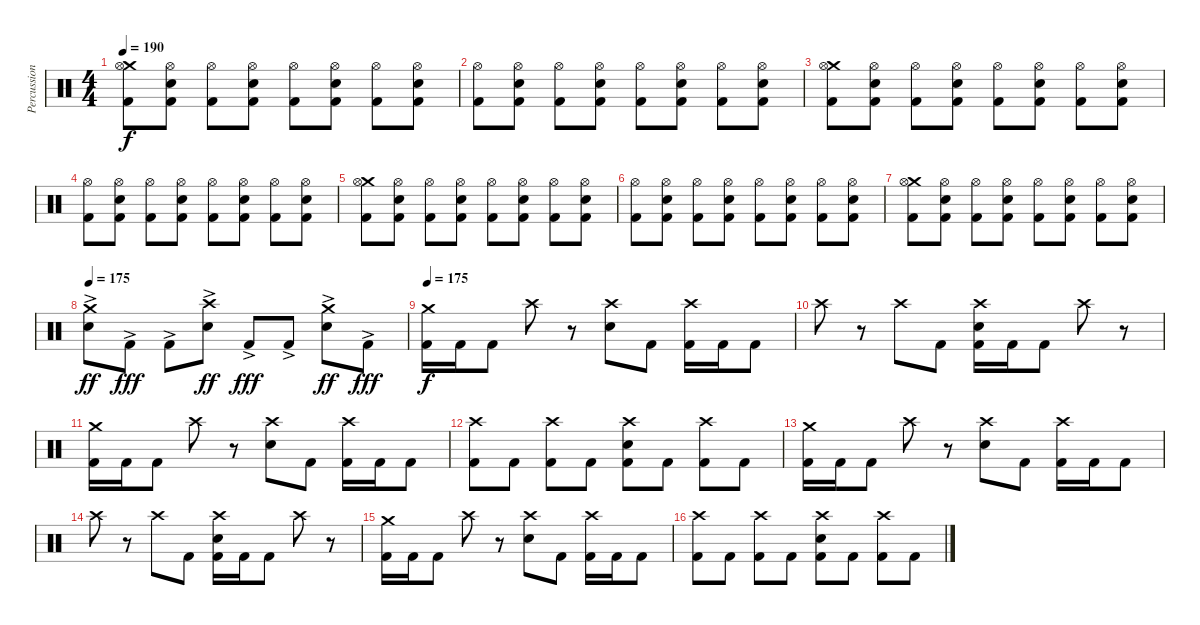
\track ("Percussion" "Percussion") {instrument percussion}
\staff {score}
\articulation defaults
\ts (4 4)
\tempo 190
\clef neutral
\ks c
("Crash medium (hit)" "Hi-Hat (open)" "Kick (hit) 2").8{dy f} ("Hi-Hat (open)" "Snare (hit) 2" "Kick (hit) 2").8 ("Hi-Hat (open)" "Kick (hit) 2").8 ("Hi-Hat (open)" "Snare (hit) 2" "Kick (hit) 2").8 ("Hi-Hat (open)" "Kick (hit) 2").8 ("Hi-Hat (open)" "Snare (hit) 2" "Kick (hit) 2").8 ("Hi-Hat (open)" "Kick (hit) 2").8 ("Hi-Hat (open)" "Snare (hit) 2" "Kick (hit) 2").8 |
("Hi-Hat (open)" "Kick (hit) 2").8 ("Hi-Hat (open)" "Snare (hit) 2" "Kick (hit) 2").8 ("Hi-Hat (open)" "Kick (hit) 2").8 ("Hi-Hat (open)" "Snare (hit) 2" "Kick (hit) 2").8 ("Hi-Hat (open)" "Kick (hit) 2").8 ("Hi-Hat (open)" "Snare (hit) 2" "Kick (hit) 2").8 ("Hi-Hat (open)" "Kick (hit) 2").8 ("Hi-Hat (open)" "Snare (hit) 2" "Kick (hit) 2").8 |
("Crash medium (hit)" "Hi-Hat (open)" "Kick (hit) 2").8 ("Hi-Hat (open)" "Snare (hit) 2" "Kick (hit) 2").8 ("Hi-Hat (open)" "Kick (hit) 2").8 ("Hi-Hat (open)" "Snare (hit) 2" "Kick (hit) 2").8 ("Hi-Hat (open)" "Kick (hit) 2").8 ("Hi-Hat (open)" "Snare (hit) 2" "Kick (hit) 2").8 ("Hi-Hat (open)" "Kick (hit) 2").8 ("Hi-Hat (open)" "Snare (hit) 2" "Kick (hit) 2").8 |
("Hi-Hat (open)" "Kick (hit) 2").8 ("Hi-Hat (open)" "Snare (hit) 2" "Kick (hit) 2").8 ("Hi-Hat (open)" "Kick (hit) 2").8 ("Hi-Hat (open)" "Snare (hit) 2" "Kick (hit) 2").8 ("Hi-Hat (open)" "Kick (hit) 2").8 ("Hi-Hat (open)" "Snare (hit) 2" "Kick (hit) 2").8 ("Hi-Hat (open)" "Kick (hit) 2").8 ("Hi-Hat (open)" "Snare (hit) 2" "Kick (hit) 2").8 |
("Crash medium (hit)" "Hi-Hat (open)" "Kick (hit) 2").8 ("Hi-Hat (open)" "Snare (hit) 2" "Kick (hit) 2").8 ("Hi-Hat (open)" "Kick (hit) 2").8 ("Hi-Hat (open)" "Snare (hit) 2" "Kick (hit) 2").8 ("Hi-Hat (open)" "Kick (hit) 2").8 ("Hi-Hat (open)" "Snare (hit) 2" "Kick (hit) 2").8 ("Hi-Hat (open)" "Kick (hit) 2").8 ("Hi-Hat (open)" "Snare (hit) 2" "Kick (hit) 2").8 |
("Hi-Hat (open)" "Kick (hit) 2").8 ("Hi-Hat (open)" "Snare (hit) 2" "Kick (hit) 2").8 ("Hi-Hat (open)" "Kick (hit) 2").8 ("Hi-Hat (open)" "Snare (hit) 2" "Kick (hit) 2").8 ("Hi-Hat (open)" "Kick (hit) 2").8 ("Hi-Hat (open)" "Snare (hit) 2" "Kick (hit) 2").8 ("Hi-Hat (open)" "Kick (hit) 2").8 ("Hi-Hat (open)" "Snare (hit) 2" "Kick (hit) 2").8 |
("Crash medium (hit)" "Hi-Hat (open)" "Kick (hit) 2").8 ("Hi-Hat (open)" "Snare (hit) 2" "Kick (hit) 2").8 ("Hi-Hat (open)" "Kick (hit) 2").8 ("Hi-Hat (open)" "Snare (hit) 2" "Kick (hit) 2").8 ("Hi-Hat (open)" "Kick (hit) 2").8 ("Hi-Hat (open)" "Snare (hit) 2" "Kick (hit) 2").8 ("Hi-Hat (open)" "Kick (hit) 2").8 ("Hi-Hat (open)" "Snare (hit) 2" "Kick (hit) 2").8 |
\tempo 175
("Crash medium (hit)"{ac} "Electric Snare (hit)").8{dy ff} "Kick (hit) 2"{ac}.8{dy fff} "Kick (hit) 2"{ac}.8 ("Crash high (hit)"{ac} "Electric Snare (hit)").8{dy ff} "Kick (hit) 2"{ac}.8{dy fff} "Kick (hit) 2"{ac}.8 ("Crash medium (hit)"{ac} "Electric Snare (hit)").8{dy ff} "Kick (hit) 2"{ac}.8{dy fff} |
\tempo 175
("Crash medium (hit)" "Kick (hit) 2").16{dy f} "Kick (hit) 2".16 "Kick (hit) 2".8 "Crash high (hit)".8 r.8 ("Crash high (hit)" "Electric Snare (hit)").8 "Kick (hit) 2".8 ("Crash high (hit)" "Kick (hit) 2").16 "Kick (hit) 2".16 "Kick (hit) 2".8 |
"Crash high (hit)".8 r.8 "Crash high (hit)".8 "Kick (hit) 2".8 ("Crash high (hit)" "Electric Snare (hit)" "Kick (hit) 2").16 "Kick (hit) 2".16 "Kick (hit) 2".8 "Crash high (hit)".8 r.8 |
("Crash medium (hit)" "Kick (hit) 2").16 "Kick (hit) 2".16 "Kick (hit) 2".8 "Crash high (hit)".8 r.8 ("Crash high (hit)" "Electric Snare (hit)").8 "Kick (hit) 2".8 ("Crash high (hit)" "Kick (hit) 2").16 "Kick (hit) 2".16 "Kick (hit) 2".8 |
("Crash high (hit)" "Kick (hit) 2").8 "Kick (hit) 2".8 ("Crash high (hit)" "Kick (hit) 2").8 "Kick (hit) 2".8 ("Crash high (hit)" "Electric Snare (hit)" "Kick (hit) 2").8 "Kick (hit) 2".8 ("Crash high (hit)" "Kick (hit) 2").8 "Kick (hit) 2".8 |
("Crash medium (hit)" "Kick (hit) 2").16 "Kick (hit) 2".16 "Kick (hit) 2".8 "Crash high (hit)".8 r.8 ("Crash high (hit)" "Electric Snare (hit)").8 "Kick (hit) 2".8 ("Crash high (hit)" "Kick (hit) 2").16 "Kick (hit) 2".16 "Kick (hit) 2".8 |
"Crash high (hit)".8 r.8 "Crash high (hit)".8 "Kick (hit) 2".8 ("Crash high (hit)" "Electric Snare (hit)" "Kick (hit) 2").16 "Kick (hit) 2".16 "Kick (hit) 2".8 "Crash high (hit)".8 r.8 |
("Crash medium (hit)" "Kick (hit) 2").16 "Kick (hit) 2".16 "Kick (hit) 2".8 "Crash high (hit)".8 r.8 ("Crash high (hit)" "Electric Snare (hit)").8 "Kick (hit) 2".8 ("Crash high (hit)" "Kick (hit) 2").16 "Kick (hit) 2".16 "Kick (hit) 2".8 |
("Crash high (hit)" "Kick (hit) 2").8 "Kick (hit) 2".8 ("Crash high (hit)" "Kick (hit) 2").8 "Kick (hit) 2".8 ("Crash high (hit)" "Electric Snare (hit)" "Kick (hit) 2").8 "Kick (hit) 2".8 ("Crash high (hit)" "Kick (hit) 2").8 "Kick (hit) 2".8
